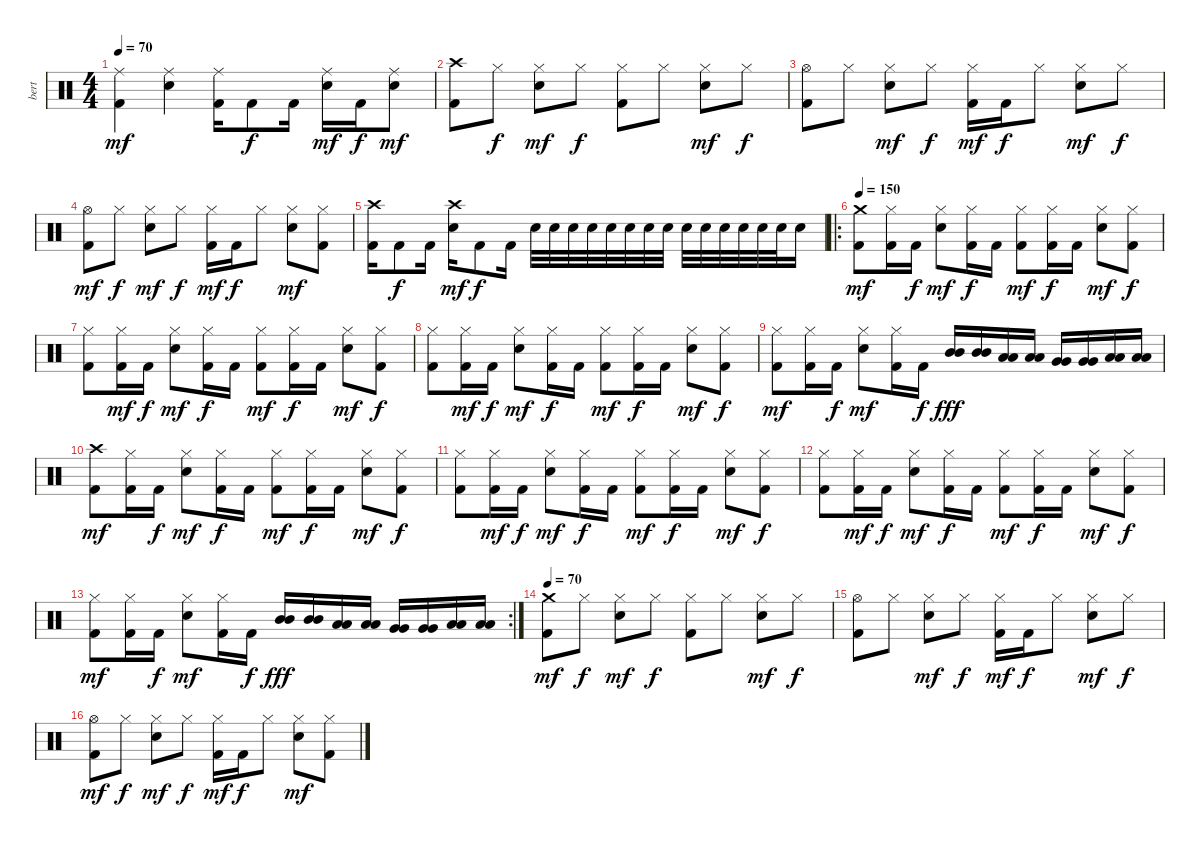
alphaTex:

\track ("bert" "bert") {instrument percussion}
\staff {score}
\articulation defaults
\ts (4 4)
\tempo 70
\clef neutral
\ks c
("Ride (middle)" "Kick (hit) 2").4{dy mf} ("Ride (middle)" "Snare (hit) 2").4 ("Ride (middle)" "Kick (hit) 2").16 "Kick (hit) 2".8{dy f} "Kick (hit) 2".16 ("Ride (middle)" "Snare (hit) 2").16{dy mf} "Kick (hit) 2".16{dy f} ("Ride (middle)" "Snare (hit) 2").8{dy mf} |
("Crash high (hit)" "Kick (hit) 2").8 "Hi-Hat (closed)".8{dy f} ("Hi-Hat (closed)" "Snare (hit) 2").8{dy mf} "Hi-Hat (closed)".8{dy f} ("Hi-Hat (closed)" "Kick (hit) 2").8 "Hi-Hat (closed)".8 ("Hi-Hat (closed)" "Snare (hit) 2").8{dy mf} "Hi-Hat (closed)".8{dy f} |
("Hi-Hat (open)" "Kick (hit) 2").8 "Hi-Hat (closed)".8 ("Hi-Hat (closed)" "Snare (hit) 2").8{dy mf} "Hi-Hat (closed)".8{dy f} ("Hi-Hat (closed)" "Kick (hit) 2").16{dy mf} "Kick (hit) 2".16{dy f} "Hi-Hat (closed)".8 ("Hi-Hat (closed)" "Snare (hit) 2").8{dy mf} "Hi-Hat (closed)".8{dy f} |
("Hi-Hat (open)" "Kick (hit) 2").8{dy mf} "Hi-Hat (closed)".8{dy f} ("Hi-Hat (closed)" "Snare (hit) 2").8{dy mf} "Hi-Hat (closed)".8{dy f} ("Hi-Hat (closed)" "Kick (hit) 2").16{dy mf} "Kick (hit) 2".16{dy f} "Hi-Hat (closed)".8 ("Hi-Hat (closed)" "Snare (hit) 2").8{dy mf} ("Hi-Hat (closed)" "Kick (hit) 2").8 |
("Crash high (hit)" "Kick (hit) 2").16 "Kick (hit) 2".8{dy f} "Kick (hit) 2".16 ("Crash high (hit)" "Snare (hit) 2").16{dy mf} "Kick (hit) 2".8{dy f} "Kick (hit) 2".16 "Snare (hit) 2".32 "Snare (hit) 2".32 "Snare (hit) 2".32 "Snare (hit) 2".32 "Snare (hit) 2".32 "Snare (hit) 2".32 "Snare (hit) 2".32 "Snare (hit) 2".32 "Snare (hit) 2".32 "Snare (hit) 2".32 "Snare (hit) 2".32 "Snare (hit) 2".32 "Snare (hit) 2".32 "Snare (hit) 2".32 "Snare (hit) 2".16 |
\ro
\tempo 150
("Crash medium (hit)" "Kick (hit) 2").8{dy mf} ("Hi-Hat (closed)" "Kick (hit) 2").16 "Kick (hit) 2".16{dy f} ("Hi-Hat (closed)" "Snare (hit) 2").8{dy mf} ("Hi-Hat (closed)" "Kick (hit) 2").16{dy f} "Kick (hit) 2".16 ("Hi-Hat (closed)" "Kick (hit) 2").8{dy mf} ("Hi-Hat (closed)" "Kick (hit) 2").16{dy f} "Kick (hit) 2".16 ("Hi-Hat (closed)" "Snare (hit) 2").8{dy mf} ("Hi-Hat (closed)" "Kick (hit) 2").8{dy f} |
("Hi-Hat (closed)" "Kick (hit) 2").8 ("Hi-Hat (closed)" "Kick (hit) 2").16{dy mf} "Kick (hit) 2".16{dy f} ("Hi-Hat (closed)" "Snare (hit) 2").8{dy mf} ("Hi-Hat (closed)" "Kick (hit) 2").16{dy f} "Kick (hit) 2".16 ("Hi-Hat (closed)" "Kick (hit) 2").8{dy mf} ("Hi-Hat (closed)" "Kick (hit) 2").16{dy f} "Kick (hit) 2".16 ("Hi-Hat (closed)" "Snare (hit) 2").8{dy mf} ("Hi-Hat (closed)" "Kick (hit) 2").8{dy f} |
("Hi-Hat (closed)" "Kick (hit) 2").8 ("Hi-Hat (closed)" "Kick (hit) 2").16{dy mf} "Kick (hit) 2".16{dy f} ("Hi-Hat (closed)" "Snare (hit) 2").8{dy mf} ("Hi-Hat (closed)" "Kick (hit) 2").16{dy f} "Kick (hit) 2".16 ("Hi-Hat (closed)" "Kick (hit) 2").8{dy mf} ("Hi-Hat (closed)" "Kick (hit) 2").16{dy f} "Kick (hit) 2".16 ("Hi-Hat (closed)" "Snare (hit) 2").8{dy mf} ("Hi-Hat (closed)" "Kick (hit) 2").8{dy f} |
("Hi-Hat (closed)" "Kick (hit) 2").8{dy mf} ("Hi-Hat (closed)" "Kick (hit) 2").16 "Kick (hit) 2".16{dy f} ("Hi-Hat (closed)" "Snare (hit) 2").8{dy mf} ("Hi-Hat (closed)" "Kick (hit) 2").16 "Kick (hit) 2".16{dy f} ("Mid Tom (hit)" "Mid Tom (hit)").16{dy fff} ("Mid Tom (hit)" "Mid Tom (hit)").16 ("Low Tom (hit)" "Low Tom (hit)").16 ("Low Tom (hit)" "Low Tom (hit)").16 ("Very Low Tom (hit)" "Very Low Tom (hit)").16 ("Very Low Tom (hit)" "Very Low Tom (hit)").16 ("Low Floor Tom (hit)" "Low Floor Tom (hit)").16 ("Low Floor Tom (hit)" "Low Floor Tom (hit)").16 |
("Crash high (hit)" "Kick (hit) 2").8{dy mf} ("Hi-Hat (closed)" "Kick (hit) 2").16 "Kick (hit) 2".16{dy f} ("Hi-Hat (closed)" "Snare (hit) 2").8{dy mf} ("Hi-Hat (closed)" "Kick (hit) 2").16{dy f} "Kick (hit) 2".16 ("Hi-Hat (closed)" "Kick (hit) 2").8{dy mf} ("Hi-Hat (closed)" "Kick (hit) 2").16{dy f} "Kick (hit) 2".16 ("Hi-Hat (closed)" "Snare (hit) 2").8{dy mf} ("Hi-Hat (closed)" "Kick (hit) 2").8{dy f} |
("Hi-Hat (closed)" "Kick (hit) 2").8 ("Hi-Hat (closed)" "Kick (hit) 2").16{dy mf} "Kick (hit) 2".16{dy f} ("Hi-Hat (closed)" "Snare (hit) 2").8{dy mf} ("Hi-Hat (closed)" "Kick (hit) 2").16{dy f} "Kick (hit) 2".16 ("Hi-Hat (closed)" "Kick (hit) 2").8{dy mf} ("Hi-Hat (closed)" "Kick (hit) 2").16{dy f} "Kick (hit) 2".16 ("Hi-Hat (closed)" "Snare (hit) 2").8{dy mf} ("Hi-Hat (closed)" "Kick (hit) 2").8{dy f} |
("Hi-Hat (closed)" "Kick (hit) 2").8 ("Hi-Hat (closed)" "Kick (hit) 2").16{dy mf} "Kick (hit) 2".16{dy f} ("Hi-Hat (closed)" "Snare (hit) 2").8{dy mf} ("Hi-Hat (closed)" "Kick (hit) 2").16{dy f} "Kick (hit) 2".16 ("Hi-Hat (closed)" "Kick (hit) 2").8{dy mf} ("Hi-Hat (closed)" "Kick (hit) 2").16{dy f} "Kick (hit) 2".16 ("Hi-Hat (closed)" "Snare (hit) 2").8{dy mf} ("Hi-Hat (closed)" "Kick (hit) 2").8{dy f} |
\rc 2
("Hi-Hat (closed)" "Kick (hit) 2").8{dy mf} ("Hi-Hat (closed)" "Kick (hit) 2").16 "Kick (hit) 2".16{dy f} ("Hi-Hat (closed)" "Snare (hit) 2").8{dy mf} ("Hi-Hat (closed)" "Kick (hit) 2").16 "Kick (hit) 2".16{dy f} ("Mid Tom (hit)" "Mid Tom (hit)").16{dy fff} ("Mid Tom (hit)" "Mid Tom (hit)").16 ("Low Tom (hit)" "Low Tom (hit)").16 ("Low Tom (hit)" "Low Tom (hit)").16 ("Very Low Tom (hit)" "Very Low Tom (hit)").16 ("Very Low Tom (hit)" "Very Low Tom (hit)").16 ("Low Floor Tom (hit)" "Low Floor Tom (hit)").16 ("Low Floor Tom (hit)" "Low Floor Tom (hit)").16 |
\tempo 70
("Crash medium (hit)" "Kick (hit) 2").8{dy mf} "Hi-Hat (closed)".8{dy f} ("Hi-Hat (closed)" "Snare (hit) 2").8{dy mf} "Hi-Hat (closed)".8{dy f} ("Hi-Hat (closed)" "Kick (hit) 2").8 "Hi-Hat (closed)".8 ("Hi-Hat (closed)" "Snare (hit) 2").8{dy mf} "Hi-Hat (closed)".8{dy f} |
("Hi-Hat (open)" "Kick (hit) 2").8 "Hi-Hat (closed)".8 ("Hi-Hat (closed)" "Snare (hit) 2").8{dy mf} "Hi-Hat (closed)".8{dy f} ("Hi-Hat (closed)" "Kick (hit) 2").16{dy mf} "Kick (hit) 2".16{dy f} "Hi-Hat (closed)".8 ("Hi-Hat (closed)" "Snare (hit) 2").8{dy mf} "Hi-Hat (closed)".8{dy f} |
("Hi-Hat (open)" "Kick (hit) 2").8{dy mf} "Hi-Hat (closed)".8{dy f} ("Hi-Hat (closed)" "Snare (hit) 2").8{dy mf} "Hi-Hat (closed)".8{dy f} ("Hi-Hat (closed)" "Kick (hit) 2").16{dy mf} "Kick (hit) 2".16{dy f} "Hi-Hat (closed)".8 ("Hi-Hat (closed)" "Snare (hit) 2").8{dy mf} ("Hi-Hat (closed)" "Kick (hit) 2").8
